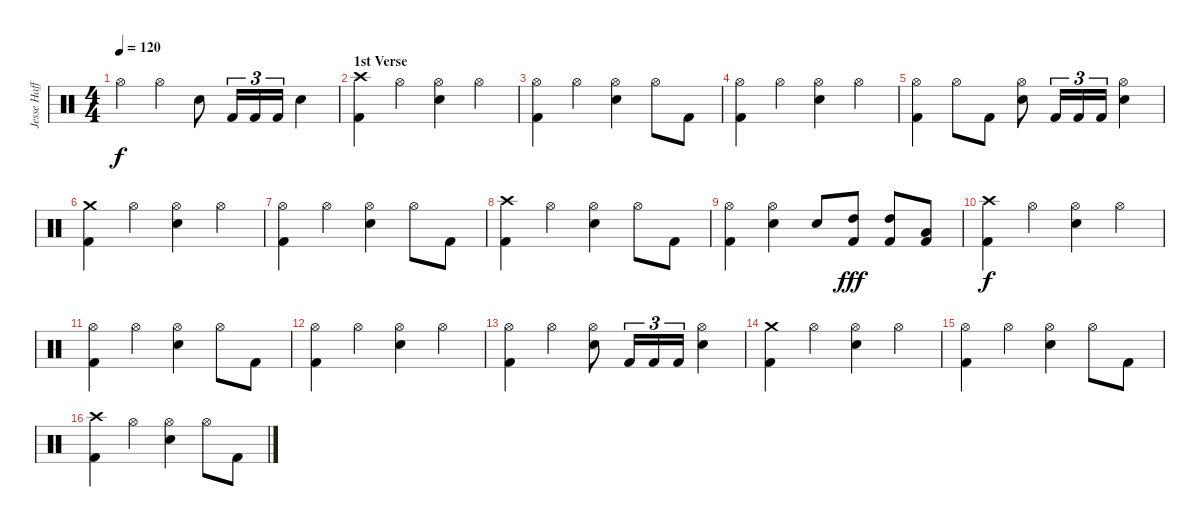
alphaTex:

\track ("Jesse Haff" "Jesse Haff") {instrument percussion}
\staff {score}
\articulation defaults
\ts (4 4)
\tempo 120
\clef neutral
\ks c "Hi-Hat (open)".4{dy f} "Hi-Hat (open)".4 "Electric Snare (hit)".8 "Kick (hit) 2".16{tu (3 2)} "Kick (hit) 2".16{tu (3 2)} "Kick (hit) 2".16{tu (3 2)} "Electric Snare (hit)".4
|
\section ("" "1st Verse")
("Crash high (hit)" "Kick (hit) 2").4 "Hi-Hat (open)".4 ("Hi-Hat (open)" "Electric Snare (hit)").4 "Hi-Hat (open)".4 |
("Hi-Hat (open)" "Kick (hit) 2").4 "Hi-Hat (open)".4 ("Hi-Hat (open)" "Electric Snare (hit)").4 "Hi-Hat (open)".8 "Kick (hit) 2".8 |
("Hi-Hat (open)" "Kick (hit) 2").4 "Hi-Hat (open)".4 ("Hi-Hat (open)" "Electric Snare (hit)").4 "Hi-Hat (open)".4 |
("Hi-Hat (open)" "Kick (hit) 2").4 "Hi-Hat (open)".8 "Kick (hit) 2".8 ("Hi-Hat (open)" "Electric Snare (hit)").8 "Kick (hit) 2".16{tu (3 2)} "Kick (hit) 2".16{tu (3 2)} "Kick (hit) 2".16{tu (3 2)} ("Hi-Hat (open)" "Electric Snare (hit)").4 |
("Crash medium (hit)" "Kick (hit) 2").4 "Hi-Hat (open)".4 ("Hi-Hat (open)" "Electric Snare (hit)").4 "Hi-Hat (open)".4 |
("Hi-Hat (open)" "Kick (hit) 2").4 "Hi-Hat (open)".4 ("Hi-Hat (open)" "Electric Snare (hit)").4 "Hi-Hat (open)".8 "Kick (hit) 2".8 |
("Crash high (hit)" "Kick (hit) 2").4 "Hi-Hat (open)".4 ("Hi-Hat (open)" "Electric Snare (hit)").4 "Hi-Hat (open)".8 "Kick (hit) 2".8 |
("Hi-Hat (open)" "Kick (hit) 2").4 ("Hi-Hat (open)" "Electric Snare (hit)").4 "Electric Snare (hit)".8 ("High Tom (hit)" "Kick (hit) 2").8{dy fff} ("High Tom (hit)" "Kick (hit) 2").8 ("Low Tom (hit)" "Kick (hit) 2").8 |
("Crash high (hit)" "Kick (hit) 2").4{dy f} "Hi-Hat (open)".4 ("Hi-Hat (open)" "Electric Snare (hit)").4 "Hi-Hat (open)".4 |
("Hi-Hat (open)" "Kick (hit) 2").4 "Hi-Hat (open)".4 ("Hi-Hat (open)" "Electric Snare (hit)").4 "Hi-Hat (open)".8 "Kick (hit) 2".8 |
("Hi-Hat (open)" "Kick (hit) 2").4 "Hi-Hat (open)".4 ("Hi-Hat (open)" "Electric Snare (hit)").4 "Hi-Hat (open)".4 |
("Hi-Hat (open)" "Kick (hit) 2").4 "Hi-Hat (open)".4 ("Hi-Hat (open)" "Electric Snare (hit)").8 "Kick (hit) 2".16{tu (3 2)} "Kick (hit) 2".16{tu (3 2)} "Kick (hit) 2".16{tu (3 2)} ("Hi-Hat (open)" "Electric Snare (hit)").4 |
("Crash medium (hit)" "Kick (hit) 2").4 "Hi-Hat (open)".4 ("Hi-Hat (open)" "Electric Snare (hit)").4 "Hi-Hat (open)".4 |
("Hi-Hat (open)" "Kick (hit) 2").4 "Hi-Hat (open)".4 ("Hi-Hat (open)" "Electric Snare (hit)").4 "Hi-Hat (open)".8 "Kick (hit) 2".8 |
("Crash high (hit)" "Kick (hit) 2").4 "Hi-Hat (open)".4 ("Hi-Hat (open)" "Electric Snare (hit)").4 "Hi-Hat (open)".8 "Kick (hit) 2".8
